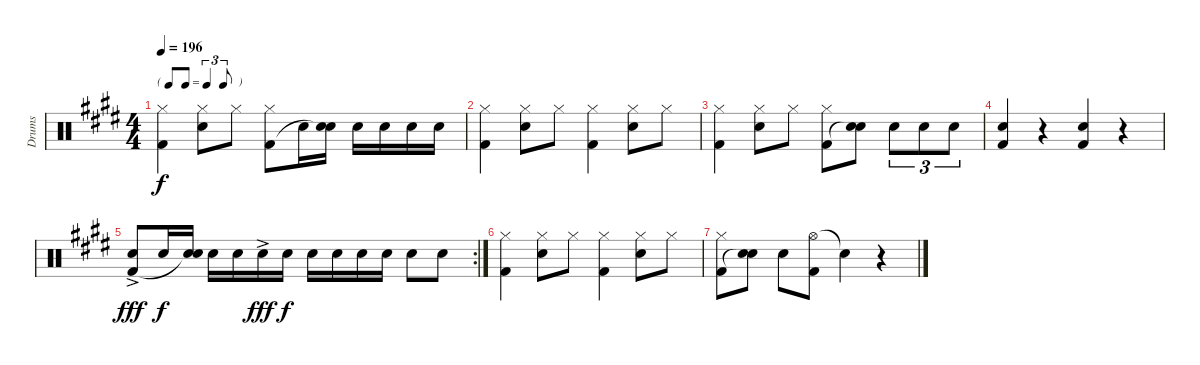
\track ("Drums" "Drums") {instrument percussion}
\staff {score}
\articulation defaults
\ts (4 4)
\tf triplet8th
\tempo 196
\clef neutral
\ks e
("Hi-Hat (closed)" "Kick (hit) 2").4{dy f} ("Hi-Hat (closed)" "Snare (hit) 2").8 "Hi-Hat (closed)".8 ("Hi-Hat (closed)" "Kick (hit) 2").8 "Snare (hit) 2".16 ("Snare (hit) 2" "Snare (hit)"{t}).16 "Snare (hit) 2".16 "Snare (hit) 2".16 "Snare (hit) 2".16 "Snare (hit) 2".16 |
("Hi-Hat (closed)" "Kick (hit) 2").4 ("Hi-Hat (closed)" "Snare (hit) 2").8 "Hi-Hat (closed)".8 ("Hi-Hat (closed)" "Kick (hit) 2").4 ("Hi-Hat (closed)" "Snare (hit) 2").8 "Hi-Hat (closed)".8 |
("Hi-Hat (closed)" "Kick (hit) 2").4 ("Hi-Hat (closed)" "Snare (hit) 2").8 "Hi-Hat (closed)".8 ("Hi-Hat (closed)" "Kick (hit) 2").8 ("Snare (hit) 2" "Snare (hit)"{t}).8 "Snare (hit) 2".8{tu (3 2)} "Snare (hit) 2".8{tu (3 2)} "Snare (hit) 2".8{tu (3 2)} |
("Snare (hit) 2" "Kick (hit) 2").4 r.4 ("Snare (hit) 2" "Kick (hit) 2").4 r.4 |
\rc 2
("Snare (hit) 2"{ac} "Kick (hit) 2").8{dy fff} "Snare (hit) 2".16{dy f} ("Snare (hit) 2" "Snare (hit)"{t}).16 "Snare (hit) 2".16 "Snare (hit) 2".16 "Snare (hit) 2"{ac}.16{dy fff} "Snare (hit) 2".16{dy f} "Snare (hit) 2".16 "Snare (hit) 2".16 "Snare (hit) 2".16 "Snare (hit) 2".16 "Snare (hit) 2".8 "Snare (hit) 2".8 |
("Hi-Hat (closed)" "Kick (hit) 2").4 ("Hi-Hat (closed)" "Snare (hit) 2").8 "Hi-Hat (closed)".8 ("Hi-Hat (closed)" "Kick (hit) 2").4 ("Hi-Hat (closed)" "Snare (hit) 2").8 "Hi-Hat (closed)".8 |
("Hi-Hat (closed)" "Kick (hit) 2").8 ("Snare (hit) 2" "Snare (hit)"{t}).8 "Snare (hit) 2".8 ("Hi-Hat (open)" "Kick (hit) 2").8 "Snare (hit)"{t}.4 r.4
